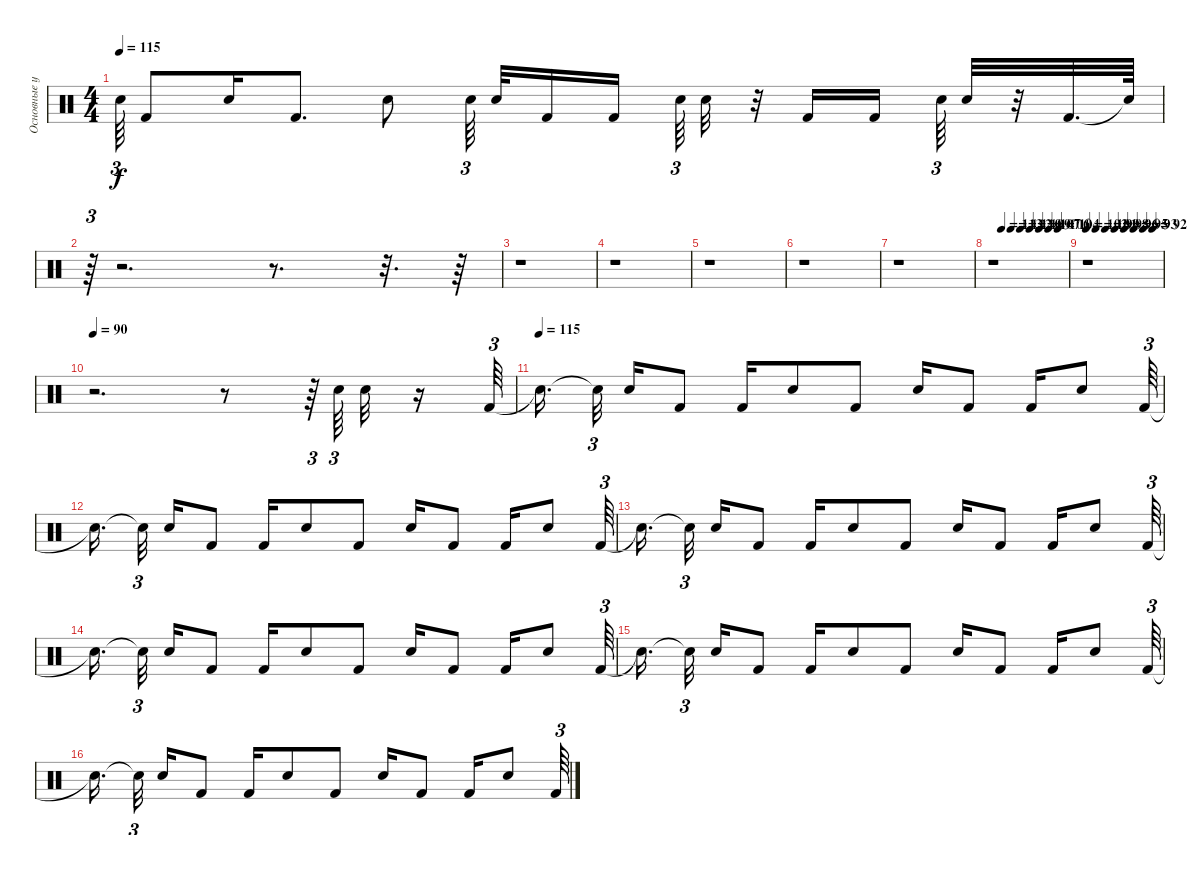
\track ("Основные ударные" "Основные у") {instrument percussion}
\staff {score}
\articulation defaults
\ts (4 4)
\tempo 115
\clef neutral
\ks c "Snare (hit)"{t}.64{tu (3 2) dy f} "Kick (hit) 2".8 "Electric Snare (hit)".16 "Kick (hit) 2".8{d} "Electric Snare (hit)".8 "Electric Snare (hit)".64{tu (3 2) beam splitsecondary} "Electric Snare (hit)".32 "Kick (hit) 2".16 "Kick (hit) 2".16{beam splitsecondary} "Electric Snare (hit)".64{tu (3 2)} "Electric Snare (hit)".32
r.32 "Kick (hit) 2".16 "Kick (hit) 2".16{beam splitsecondary} "Electric Snare (hit)".64{tu (3 2)} "Electric Snare (hit)".32 r.32 "Kick (hit) 2".32{d} "Snare (hit)"{t}.64 |
r.64{tu (3 2)} r.2{d} r.8{d} r.32{d} r.64 |
r.1 |
r.1 |
r.1 |
r.1 |
r.1 |
\tempo (113 0.125)
\tempo (112 0.25)
\tempo (110 0.375)
\tempo (109 0.5)
\tempo (107 0.625)
\tempo (106 0.75)
\tempo (104 0.875)
r.1 |
\tempo 102
\tempo (101 0.125)
\tempo (99 0.25)
\tempo (98 0.375)
\tempo (96 0.5)
\tempo (95 0.625)
\tempo (93 0.75)
\tempo (92 0.875)
r.1 |
\tempo 90
r.2{d} r.8 r.64{tu (3 2)} "Electric Snare (hit)".64{tu (3 2)} "Electric Snare (hit)".32 r.16 "Kick (hit) 2".64{tu (3 2)} |
\tempo (115)
"Snare (hit)"{t}.16{d beam splitsecondary} "Snare (hit)"{t}.32{tu (3 2) beam splitsecondary} "Electric Snare (hit)".16 "Kick (hit) 2".8 "Kick (hit) 2".16 "Electric Snare (hit)".8 "Kick (hit) 2".8 "Electric Snare (hit)".16 "Kick (hit) 2".8 "Kick (hit) 2".16 "Electric Snare (hit)".8 "Kick (hit) 2".64{tu (3 2)} |
"Snare (hit)"{t}.16{d beam splitsecondary} "Snare (hit)"{t}.32{tu (3 2) beam splitsecondary} "Electric Snare (hit)".16 "Kick (hit) 2".8 "Kick (hit) 2".16 "Electric Snare (hit)".8 "Kick (hit) 2".8 "Electric Snare (hit)".16 "Kick (hit) 2".8 "Kick (hit) 2".16 "Electric Snare (hit)".8 "Kick (hit) 2".64{tu (3 2)} |
"Snare (hit)"{t}.16{d beam splitsecondary} "Snare (hit)"{t}.32{tu (3 2) beam splitsecondary} "Electric Snare (hit)".16 "Kick (hit) 2".8 "Kick (hit) 2".16 "Electric Snare (hit)".8 "Kick (hit) 2".8 "Electric Snare (hit)".16 "Kick (hit) 2".8 "Kick (hit) 2".16 "Electric Snare (hit)".8 "Kick (hit) 2".64{tu (3 2)} |
"Snare (hit)"{t}.16{d beam splitsecondary} "Snare (hit)"{t}.32{tu (3 2) beam splitsecondary} "Electric Snare (hit)".16 "Kick (hit) 2".8 "Kick (hit) 2".16 "Electric Snare (hit)".8 "Kick (hit) 2".8 "Electric Snare (hit)".16 "Kick (hit) 2".8 "Kick (hit) 2".16 "Electric Snare (hit)".8 "Kick (hit) 2".64{tu (3 2)} |
"Snare (hit)"{t}.16{d beam splitsecondary} "Snare (hit)"{t}.32{tu (3 2) beam splitsecondary} "Electric Snare (hit)".16 "Kick (hit) 2".8 "Kick (hit) 2".16 "Electric Snare (hit)".8 "Kick (hit) 2".8 "Electric Snare (hit)".16 "Kick (hit) 2".8 "Kick (hit) 2".16 "Electric Snare (hit)".8 "Kick (hit) 2".64{tu (3 2)} |
"Snare (hit)"{t}.16{d beam splitsecondary} "Snare (hit)"{t}.32{tu (3 2) beam splitsecondary} "Electric Snare (hit)".16 "Kick (hit) 2".8 "Kick (hit) 2".16 "Electric Snare (hit)".8 "Kick (hit) 2".8 "Electric Snare (hit)".16 "Kick (hit) 2".8 "Kick (hit) 2".16 "Electric Snare (hit)".8 "Kick (hit) 2".64{tu (3 2)}
